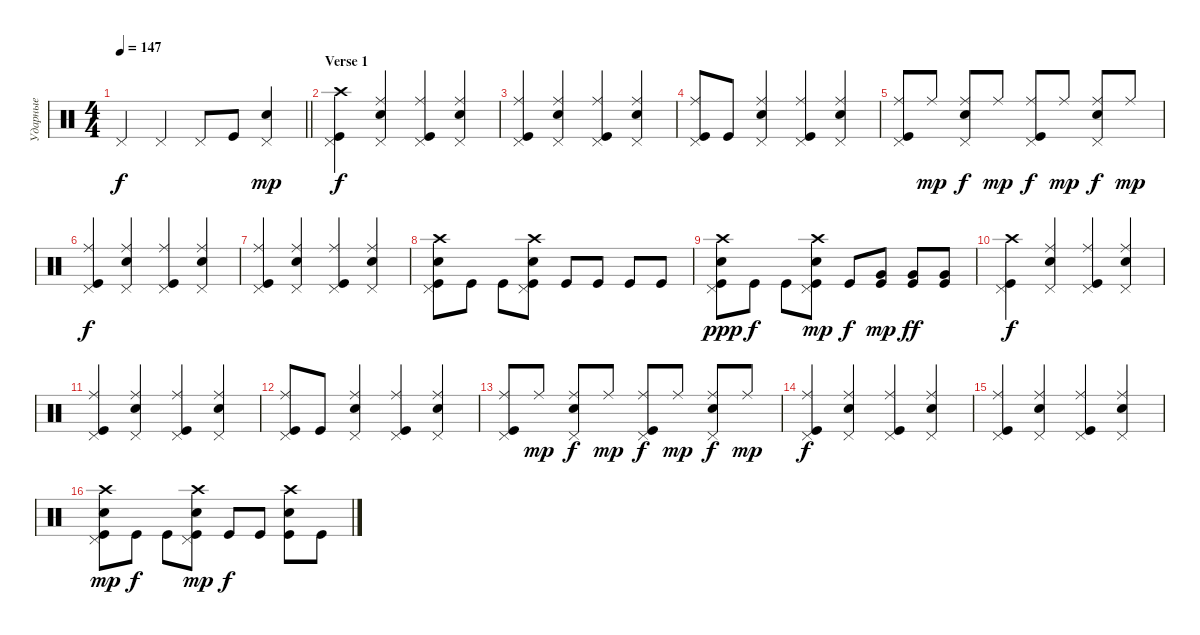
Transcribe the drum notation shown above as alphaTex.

\track ("Ударные" "Ударные") {instrument percussion}
\staff {score}
\articulation defaults
\ts (4 4)
\tempo 147
\clef neutral
\barLineRight lightlight
\ks c "Pedal Hi-Hat (hit)".4{dy f} "Pedal Hi-Hat (hit)".4 "Pedal Hi-Hat (hit)".8 "Kick (hit)".8
("Snare (hit) 2" "Pedal Hi-Hat (hit)").4{dy mp} |
\section ("" "Verse 1")
("Kick (hit)" "Crash high (hit)" "Pedal Hi-Hat (hit)").4{dy f} ("Ride (middle)" "Snare (hit) 2" "Pedal Hi-Hat (hit)").4 ("Ride (middle)" "Kick (hit)" "Pedal Hi-Hat (hit)").4 ("Ride (middle)" "Snare (hit) 2" "Pedal Hi-Hat (hit)").4 |
("Kick (hit)" "Ride (middle)" "Pedal Hi-Hat (hit)").4 ("Snare (hit) 2" "Ride (middle)" "Pedal Hi-Hat (hit)").4 ("Kick (hit)" "Ride (middle)" "Pedal Hi-Hat (hit)").4 ("Snare (hit) 2" "Ride (middle)" "Pedal Hi-Hat (hit)").4 |
("Kick (hit)" "Pedal Hi-Hat (hit)" "Ride (middle)").8 "Kick (hit)".8 ("Snare (hit) 2" "Ride (middle)" "Pedal Hi-Hat (hit)").4 ("Kick (hit)" "Ride (middle)" "Pedal Hi-Hat (hit)").4 ("Snare (hit) 2" "Ride (middle)" "Pedal Hi-Hat (hit)").4 |
("Kick (hit)" "Ride (middle)" "Pedal Hi-Hat (hit)").8 "Ride (middle)".8{dy mp} ("Snare (hit) 2" "Ride (middle)" "Pedal Hi-Hat (hit)").8{dy f} "Ride (middle)".8{dy mp} ("Kick (hit)" "Pedal Hi-Hat (hit)" "Ride (middle)").8{dy f} "Ride (middle)".8{dy mp} ("Snare (hit) 2" "Pedal Hi-Hat (hit)" "Ride (middle)").8{dy f} "Ride (middle)".8{dy mp} |
("Kick (hit)" "Ride (middle)" "Pedal Hi-Hat (hit)").4{dy f} ("Snare (hit) 2" "Ride (middle)" "Pedal Hi-Hat (hit)").4 ("Kick (hit)" "Ride (middle)" "Pedal Hi-Hat (hit)").4 ("Snare (hit) 2" "Ride (middle)" "Pedal Hi-Hat (hit)").4 |
("Kick (hit)" "Ride (middle)" "Pedal Hi-Hat (hit)").4 ("Snare (hit) 2" "Ride (middle)" "Pedal Hi-Hat (hit)").4 ("Kick (hit)" "Ride (middle)" "Pedal Hi-Hat (hit)").4 ("Snare (hit) 2" "Ride (middle)" "Pedal Hi-Hat (hit)").4 |
("Snare (hit) 2" "Crash high (hit)" "Pedal Hi-Hat (hit)" "Kick (hit)").8 "Kick (hit)".8 "Kick (hit)".8 ("Snare (hit) 2" "Crash high (hit)" "Pedal Hi-Hat (hit)" "Kick (hit)").8 "Kick (hit)".8 "Kick (hit)".8 "Kick (hit)".8 "Kick (hit)".8 |
("Snare (hit) 2" "Crash high (hit)" "Pedal Hi-Hat (hit)" "Kick (hit)").8{dy ppp} "Kick (hit)".8{dy f} "Kick (hit)".8 ("Snare (hit) 2" "Crash high (hit)" "Pedal Hi-Hat (hit)" "Kick (hit)").8{dy mp} "Kick (hit)".8{dy f} ("Kick (hit)" "Very Low Tom (hit)").8{dy mp} ("Kick (hit)" "Very Low Tom (hit)").8{dy ff} ("Kick (hit)" "Very Low Tom (hit)").8 |
("Kick (hit)" "Crash high (hit)" "Pedal Hi-Hat (hit)").4{dy f} ("Ride (middle)" "Snare (hit) 2" "Pedal Hi-Hat (hit)").4 ("Ride (middle)" "Kick (hit)" "Pedal Hi-Hat (hit)").4 ("Ride (middle)" "Snare (hit) 2" "Pedal Hi-Hat (hit)").4 |
("Kick (hit)" "Ride (middle)" "Pedal Hi-Hat (hit)").4 ("Snare (hit) 2" "Ride (middle)" "Pedal Hi-Hat (hit)").4 ("Kick (hit)" "Ride (middle)" "Pedal Hi-Hat (hit)").4 ("Snare (hit) 2" "Ride (middle)" "Pedal Hi-Hat (hit)").4 |
("Kick (hit)" "Pedal Hi-Hat (hit)" "Ride (middle)").8 "Kick (hit)".8 ("Snare (hit) 2" "Ride (middle)" "Pedal Hi-Hat (hit)").4 ("Kick (hit)" "Ride (middle)" "Pedal Hi-Hat (hit)").4 ("Snare (hit) 2" "Ride (middle)" "Pedal Hi-Hat (hit)").4 |
("Kick (hit)" "Ride (middle)" "Pedal Hi-Hat (hit)").8 "Ride (middle)".8{dy mp} ("Snare (hit) 2" "Ride (middle)" "Pedal Hi-Hat (hit)").8{dy f} "Ride (middle)".8{dy mp} ("Kick (hit)" "Pedal Hi-Hat (hit)" "Ride (middle)").8{dy f} "Ride (middle)".8{dy mp} ("Snare (hit) 2" "Pedal Hi-Hat (hit)" "Ride (middle)").8{dy f} "Ride (middle)".8{dy mp} |
("Kick (hit)" "Ride (middle)" "Pedal Hi-Hat (hit)").4{dy f} ("Snare (hit) 2" "Ride (middle)" "Pedal Hi-Hat (hit)").4 ("Kick (hit)" "Ride (middle)" "Pedal Hi-Hat (hit)").4 ("Snare (hit) 2" "Ride (middle)" "Pedal Hi-Hat (hit)").4 |
("Kick (hit)" "Ride (middle)" "Pedal Hi-Hat (hit)").4 ("Snare (hit) 2" "Ride (middle)" "Pedal Hi-Hat (hit)").4 ("Kick (hit)" "Ride (middle)" "Pedal Hi-Hat (hit)").4 ("Snare (hit) 2" "Ride (middle)" "Pedal Hi-Hat (hit)").4 |
("Snare (hit) 2" "Crash high (hit)" "Pedal Hi-Hat (hit)" "Kick (hit)").8{dy mp} "Kick (hit)".8{dy f} "Kick (hit)".8 ("Snare (hit) 2" "Crash high (hit)" "Pedal Hi-Hat (hit)" "Kick (hit)").8{dy mp} "Kick (hit)".8{dy f} "Kick (hit)".8 ("Snare (hit) 2" "Crash high (hit)" "Kick (hit)").8 "Kick (hit)".8
